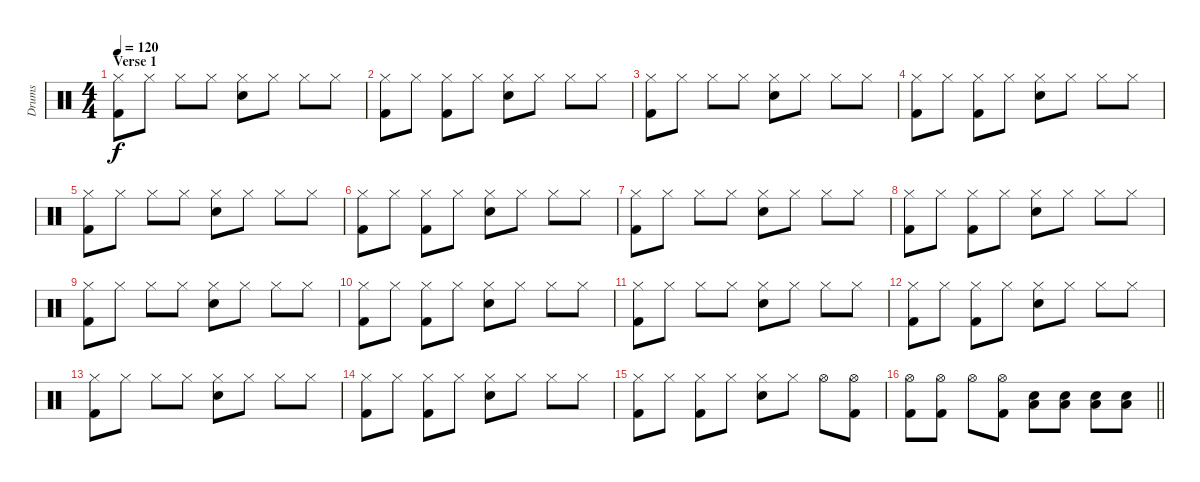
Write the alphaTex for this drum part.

\track ("Drums" "Drums") {instrument percussion}
\staff {score}
\articulation defaults
\ts (4 4)
\section ("" "Verse 1")
\tempo 120
\clef neutral
\ks c
("Hi-Hat (closed)" "Kick (hit) 2").8{dy f} "Hi-Hat (closed)".8 "Hi-Hat (closed)".8 "Hi-Hat (closed)".8 ("Hi-Hat (closed)" "Snare (hit) 2").8 "Hi-Hat (closed)".8 "Hi-Hat (closed)".8 "Hi-Hat (closed)".8 |
("Hi-Hat (closed)" "Kick (hit) 2").8 "Hi-Hat (closed)".8 ("Hi-Hat (closed)" "Kick (hit) 2").8 "Hi-Hat (closed)".8 ("Hi-Hat (closed)" "Snare (hit) 2").8 "Hi-Hat (closed)".8 "Hi-Hat (closed)".8 "Hi-Hat (closed)".8 |
("Hi-Hat (closed)" "Kick (hit) 2").8 "Hi-Hat (closed)".8 "Hi-Hat (closed)".8 "Hi-Hat (closed)".8 ("Hi-Hat (closed)" "Snare (hit) 2").8 "Hi-Hat (closed)".8 "Hi-Hat (closed)".8 "Hi-Hat (closed)".8 |
("Hi-Hat (closed)" "Kick (hit) 2").8 "Hi-Hat (closed)".8 ("Hi-Hat (closed)" "Kick (hit) 2").8 "Hi-Hat (closed)".8 ("Hi-Hat (closed)" "Snare (hit) 2").8 "Hi-Hat (closed)".8 "Hi-Hat (closed)".8 "Hi-Hat (closed)".8 |
("Hi-Hat (closed)" "Kick (hit) 2").8 "Hi-Hat (closed)".8 "Hi-Hat (closed)".8 "Hi-Hat (closed)".8 ("Hi-Hat (closed)" "Snare (hit) 2").8 "Hi-Hat (closed)".8 "Hi-Hat (closed)".8 "Hi-Hat (closed)".8 |
("Hi-Hat (closed)" "Kick (hit) 2").8 "Hi-Hat (closed)".8 ("Hi-Hat (closed)" "Kick (hit) 2").8 "Hi-Hat (closed)".8 ("Hi-Hat (closed)" "Snare (hit) 2").8 "Hi-Hat (closed)".8 "Hi-Hat (closed)".8 "Hi-Hat (closed)".8 |
("Hi-Hat (closed)" "Kick (hit) 2").8 "Hi-Hat (closed)".8 "Hi-Hat (closed)".8 "Hi-Hat (closed)".8 ("Hi-Hat (closed)" "Snare (hit) 2").8 "Hi-Hat (closed)".8 "Hi-Hat (closed)".8 "Hi-Hat (closed)".8 |
("Hi-Hat (closed)" "Kick (hit) 2").8 "Hi-Hat (closed)".8 ("Hi-Hat (closed)" "Kick (hit) 2").8 "Hi-Hat (closed)".8 ("Hi-Hat (closed)" "Snare (hit) 2").8 "Hi-Hat (closed)".8 "Hi-Hat (closed)".8 "Hi-Hat (closed)".8 |
("Hi-Hat (closed)" "Kick (hit) 2").8 "Hi-Hat (closed)".8 "Hi-Hat (closed)".8 "Hi-Hat (closed)".8 ("Hi-Hat (closed)" "Snare (hit) 2").8 "Hi-Hat (closed)".8 "Hi-Hat (closed)".8 "Hi-Hat (closed)".8 |
("Hi-Hat (closed)" "Kick (hit) 2").8 "Hi-Hat (closed)".8 ("Hi-Hat (closed)" "Kick (hit) 2").8 "Hi-Hat (closed)".8 ("Hi-Hat (closed)" "Snare (hit) 2").8 "Hi-Hat (closed)".8 "Hi-Hat (closed)".8 "Hi-Hat (closed)".8 |
("Hi-Hat (closed)" "Kick (hit) 2").8 "Hi-Hat (closed)".8 "Hi-Hat (closed)".8 "Hi-Hat (closed)".8 ("Hi-Hat (closed)" "Snare (hit) 2").8 "Hi-Hat (closed)".8 "Hi-Hat (closed)".8 "Hi-Hat (closed)".8 |
("Hi-Hat (closed)" "Kick (hit) 2").8 "Hi-Hat (closed)".8 ("Hi-Hat (closed)" "Kick (hit) 2").8 "Hi-Hat (closed)".8 ("Hi-Hat (closed)" "Snare (hit) 2").8 "Hi-Hat (closed)".8 "Hi-Hat (closed)".8 "Hi-Hat (closed)".8 |
("Hi-Hat (closed)" "Kick (hit) 2").8 "Hi-Hat (closed)".8 "Hi-Hat (closed)".8 "Hi-Hat (closed)".8 ("Hi-Hat (closed)" "Snare (hit) 2").8 "Hi-Hat (closed)".8 "Hi-Hat (closed)".8 "Hi-Hat (closed)".8 |
("Hi-Hat (closed)" "Kick (hit) 2").8 "Hi-Hat (closed)".8 ("Hi-Hat (closed)" "Kick (hit) 2").8 "Hi-Hat (closed)".8 ("Hi-Hat (closed)" "Snare (hit) 2").8 "Hi-Hat (closed)".8 "Hi-Hat (closed)".8 "Hi-Hat (closed)".8 |
("Hi-Hat (closed)" "Kick (hit) 2").8 "Hi-Hat (closed)".8 ("Hi-Hat (closed)" "Kick (hit) 2").8 "Hi-Hat (closed)".8 ("Hi-Hat (closed)" "Snare (hit) 2").8 "Hi-Hat (closed)".8 "Hi-Hat (open)".8 ("Hi-Hat (open)" "Kick (hit) 2").8 |
\barLineRight lightlight
("Hi-Hat (open)" "Kick (hit) 2").8 ("Hi-Hat (open)" "Kick (hit) 2").8 "Hi-Hat (open)".8 ("Hi-Hat (open)" "Kick (hit) 2").8 ("Low Tom (hit)" "Snare (hit) 2").8 ("Low Tom (hit)" "Snare (hit) 2").8 ("Low Tom (hit)" "Snare (hit) 2").8 ("Low Tom (hit)" "Snare (hit) 2").8
